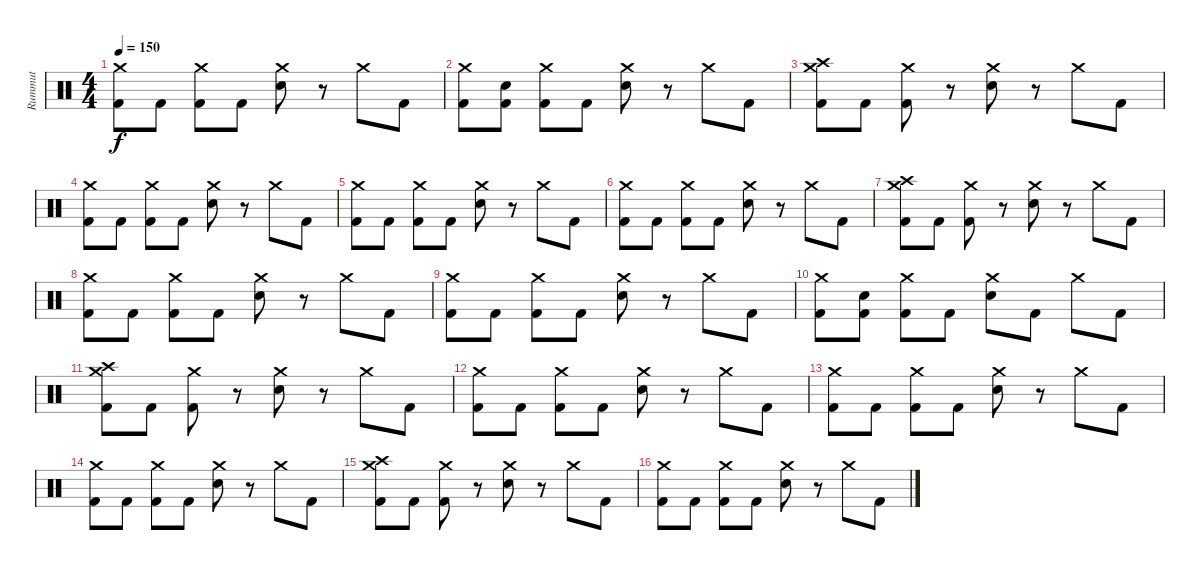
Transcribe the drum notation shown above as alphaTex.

\track ("Rummut" "Rummut") {instrument percussion}
\staff {score}
\articulation defaults
\ts (4 4)
\tempo 150
\clef neutral
\ks c
("Crash medium (hit)" "Kick (hit) 2").8{dy f} "Kick (hit) 2".8 ("Crash medium (hit)" "Kick (hit) 2").8 "Kick (hit) 2".8 ("Crash medium (hit)" "Snare (hit) 2").8 r.8 "Crash medium (hit)".8 "Kick (hit) 2".8 |
("Crash medium (hit)" "Kick (hit) 2").8 ("Snare (hit) 2" "Kick (hit) 2").8 ("Crash medium (hit)" "Kick (hit) 2").8 "Kick (hit) 2".8 ("Crash medium (hit)" "Snare (hit) 2").8 r.8 "Crash medium (hit)".8 "Kick (hit) 2".8 |
("Crash high (hit)" "Crash medium (hit)" "Kick (hit) 2").8 "Kick (hit) 2".8 ("Crash medium (hit)" "Kick (hit) 2").8 r.8 ("Crash medium (hit)" "Snare (hit) 2").8 r.8 "Crash medium (hit)".8 "Kick (hit) 2".8 |
("Crash medium (hit)" "Kick (hit) 2").8 "Kick (hit) 2".8 ("Crash medium (hit)" "Kick (hit) 2").8 "Kick (hit) 2".8 ("Crash medium (hit)" "Snare (hit) 2").8 r.8 "Crash medium (hit)".8 "Kick (hit) 2".8 |
("Crash medium (hit)" "Kick (hit) 2").8 "Kick (hit) 2".8 ("Crash medium (hit)" "Kick (hit) 2").8 "Kick (hit) 2".8 ("Crash medium (hit)" "Snare (hit) 2").8 r.8 "Crash medium (hit)".8 "Kick (hit) 2".8 |
("Crash medium (hit)" "Kick (hit) 2").8 "Kick (hit) 2".8 ("Crash medium (hit)" "Kick (hit) 2").8 "Kick (hit) 2".8 ("Crash medium (hit)" "Snare (hit) 2").8 r.8 "Crash medium (hit)".8 "Kick (hit) 2".8 |
("Crash high (hit)" "Crash medium (hit)" "Kick (hit) 2").8 "Kick (hit) 2".8 ("Crash medium (hit)" "Kick (hit) 2").8 r.8 ("Crash medium (hit)" "Snare (hit) 2").8 r.8 "Crash medium (hit)".8 "Kick (hit) 2".8 |
("Crash medium (hit)" "Kick (hit) 2").8 "Kick (hit) 2".8 ("Crash medium (hit)" "Kick (hit) 2").8 "Kick (hit) 2".8 ("Crash medium (hit)" "Snare (hit) 2").8 r.8 "Crash medium (hit)".8 "Kick (hit) 2".8 |
("Crash medium (hit)" "Kick (hit) 2").8 "Kick (hit) 2".8 ("Crash medium (hit)" "Kick (hit) 2").8 "Kick (hit) 2".8 ("Crash medium (hit)" "Snare (hit) 2").8 r.8 "Crash medium (hit)".8 "Kick (hit) 2".8 |
("Crash medium (hit)" "Kick (hit) 2").8 ("Snare (hit) 2" "Kick (hit) 2").8 ("Crash medium (hit)" "Kick (hit) 2").8 "Kick (hit) 2".8 ("Crash medium (hit)" "Snare (hit) 2").8 "Kick (hit) 2".8 "Crash medium (hit)".8 "Kick (hit) 2".8 |
("Crash high (hit)" "Crash medium (hit)" "Kick (hit) 2").8 "Kick (hit) 2".8 ("Crash medium (hit)" "Kick (hit) 2").8 r.8 ("Crash medium (hit)" "Snare (hit) 2").8 r.8 "Crash medium (hit)".8 "Kick (hit) 2".8 |
("Crash medium (hit)" "Kick (hit) 2").8 "Kick (hit) 2".8 ("Crash medium (hit)" "Kick (hit) 2").8 "Kick (hit) 2".8 ("Crash medium (hit)" "Snare (hit) 2").8 r.8 "Crash medium (hit)".8 "Kick (hit) 2".8 |
("Crash medium (hit)" "Kick (hit) 2").8 "Kick (hit) 2".8 ("Crash medium (hit)" "Kick (hit) 2").8 "Kick (hit) 2".8 ("Crash medium (hit)" "Snare (hit) 2").8 r.8 "Crash medium (hit)".8 "Kick (hit) 2".8 |
("Crash medium (hit)" "Kick (hit) 2").8 "Kick (hit) 2".8 ("Crash medium (hit)" "Kick (hit) 2").8 "Kick (hit) 2".8 ("Crash medium (hit)" "Snare (hit) 2").8 r.8 "Crash medium (hit)".8 "Kick (hit) 2".8 |
("Crash high (hit)" "Crash medium (hit)" "Kick (hit) 2").8 "Kick (hit) 2".8 ("Crash medium (hit)" "Kick (hit) 2").8 r.8 ("Crash medium (hit)" "Snare (hit) 2").8 r.8 "Crash medium (hit)".8 "Kick (hit) 2".8 |
("Crash medium (hit)" "Kick (hit) 2").8 "Kick (hit) 2".8 ("Crash medium (hit)" "Kick (hit) 2").8 "Kick (hit) 2".8 ("Crash medium (hit)" "Snare (hit) 2").8 r.8 "Crash medium (hit)".8 "Kick (hit) 2".8
